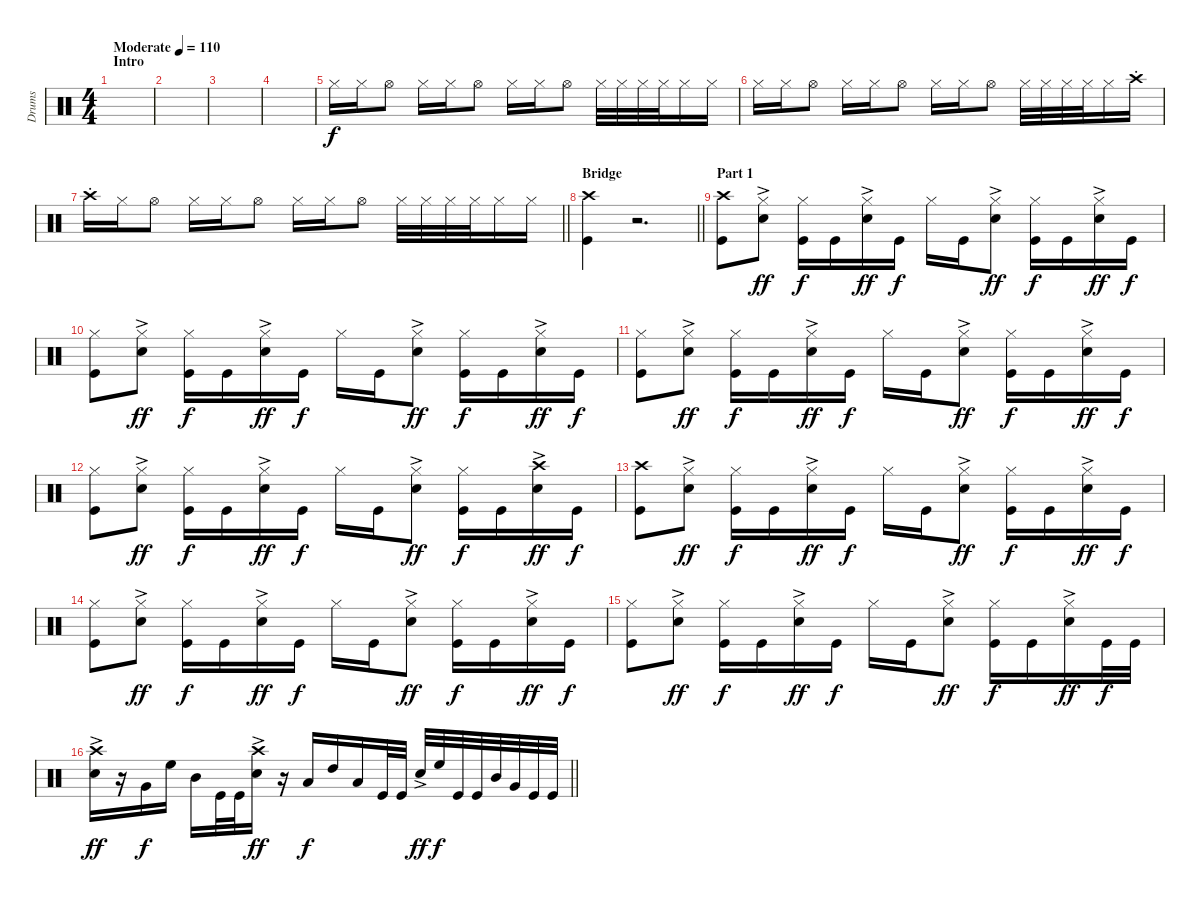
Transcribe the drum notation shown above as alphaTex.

\track ("Drums" "Drums") {instrument percussion}
\staff {score}
\articulation defaults
\ts (4 4)
\section ("" "Intro")
\tempo (110 "Moderate")
\clef neutral
\ks c
|
|
|
|
"Hi-Hat (closed)".16 "Hi-Hat (closed)".16 "Hi-Hat (open)".8 "Hi-Hat (closed)".16 "Hi-Hat (closed)".16 "Hi-Hat (open)".8 "Hi-Hat (closed)".16 "Hi-Hat (closed)".16 "Hi-Hat (open)".8 "Hi-Hat (closed)".32 "Hi-Hat (closed)".32 "Hi-Hat (closed)".32 "Hi-Hat (closed)".32 "Hi-Hat (closed)".16 "Hi-Hat (closed)".16 |
"Hi-Hat (closed)".16 "Hi-Hat (closed)".16 "Hi-Hat (open)".8 "Hi-Hat (closed)".16 "Hi-Hat (closed)".16 "Hi-Hat (open)".8 "Hi-Hat (closed)".16 "Hi-Hat (closed)".16 "Hi-Hat (open)".8 "Hi-Hat (closed)".32 "Hi-Hat (closed)".32 "Hi-Hat (closed)".32 "Hi-Hat (closed)".32 "Hi-Hat (closed)".16 "Crash high (hit)"{st}.16 |
\barLineRight lightlight "Crash high (hit)"{st}.16 "Hi-Hat (closed)".16 "Hi-Hat (open)".8 "Hi-Hat (closed)".16 "Hi-Hat (closed)".16 "Hi-Hat (open)".8 "Hi-Hat (closed)".16 "Hi-Hat (closed)".16 "Hi-Hat (open)".8 "Hi-Hat (closed)".32 "Hi-Hat (closed)".32 "Hi-Hat (closed)".32 "Hi-Hat (closed)".32 "Hi-Hat (closed)".16 "Hi-Hat (closed)".16
|
\section ("" "Bridge")
\barLineRight lightlight
("Crash high (hit)" "Kick (hit)").4 r.2{d} |
\section ("" "Part 1")
("Kick (hit)" "Crash high (hit)").8 ("Hi-Hat (closed)" "Electric Snare (hit)"{ac}).8{dy ff} ("Hi-Hat (closed)" "Kick (hit)").16{dy f} "Kick (hit)".16 ("Hi-Hat (closed)" "Electric Snare (hit)"{ac}).16{dy ff} "Kick (hit)".16{dy f} "Hi-Hat (closed)".16 "Kick (hit)".16 ("Electric Snare (hit)"{ac} "Hi-Hat (closed)").8{dy ff} ("Kick (hit)" "Hi-Hat (closed)").16{dy f} "Kick (hit)".16 ("Electric Snare (hit)"{ac} "Hi-Hat (closed)").16{dy ff} "Kick (hit)".16{dy f} |
("Kick (hit)" "Hi-Hat (closed)").8 ("Hi-Hat (closed)" "Electric Snare (hit)"{ac}).8{dy ff} ("Hi-Hat (closed)" "Kick (hit)").16{dy f} "Kick (hit)".16 ("Hi-Hat (closed)" "Electric Snare (hit)"{ac}).16{dy ff} "Kick (hit)".16{dy f} "Hi-Hat (closed)".16 "Kick (hit)".16 ("Electric Snare (hit)"{ac} "Hi-Hat (closed)").8{dy ff} ("Kick (hit)" "Hi-Hat (closed)").16{dy f} "Kick (hit)".16 ("Electric Snare (hit)"{ac} "Hi-Hat (closed)").16{dy ff} "Kick (hit)".16{dy f} |
("Kick (hit)" "Hi-Hat (closed)").8 ("Hi-Hat (closed)" "Electric Snare (hit)"{ac}).8{dy ff} ("Hi-Hat (closed)" "Kick (hit)").16{dy f} "Kick (hit)".16 ("Hi-Hat (closed)" "Electric Snare (hit)"{ac}).16{dy ff} "Kick (hit)".16{dy f} "Hi-Hat (closed)".16 "Kick (hit)".16 ("Electric Snare (hit)"{ac} "Hi-Hat (closed)").8{dy ff} ("Kick (hit)" "Hi-Hat (closed)").16{dy f} "Kick (hit)".16 ("Electric Snare (hit)"{ac} "Hi-Hat (closed)").16{dy ff} "Kick (hit)".16{dy f} |
("Kick (hit)" "Hi-Hat (closed)").8 ("Hi-Hat (closed)" "Electric Snare (hit)"{ac}).8{dy ff} ("Hi-Hat (closed)" "Kick (hit)").16{dy f} "Kick (hit)".16 ("Hi-Hat (closed)" "Electric Snare (hit)"{ac}).16{dy ff} "Kick (hit)".16{dy f} "Hi-Hat (closed)".16 "Kick (hit)".16 ("Electric Snare (hit)"{ac} "Hi-Hat (closed)").8{dy ff} ("Kick (hit)" "Hi-Hat (closed)").16{dy f} "Kick (hit)".16 ("Electric Snare (hit)"{ac} "Crash high (hit)").16{dy ff} "Kick (hit)".16{dy f} |
("Kick (hit)" "Crash high (hit)").8 ("Hi-Hat (closed)" "Electric Snare (hit)"{ac}).8{dy ff} ("Hi-Hat (closed)" "Kick (hit)").16{dy f} "Kick (hit)".16 ("Hi-Hat (closed)" "Electric Snare (hit)"{ac}).16{dy ff} "Kick (hit)".16{dy f} "Hi-Hat (closed)".16 "Kick (hit)".16 ("Electric Snare (hit)"{ac} "Hi-Hat (closed)").8{dy ff} ("Kick (hit)" "Hi-Hat (closed)").16{dy f} "Kick (hit)".16 ("Electric Snare (hit)"{ac} "Hi-Hat (closed)").16{dy ff} "Kick (hit)".16{dy f} |
("Kick (hit)" "Hi-Hat (closed)").8 ("Hi-Hat (closed)" "Electric Snare (hit)"{ac}).8{dy ff} ("Hi-Hat (closed)" "Kick (hit)").16{dy f} "Kick (hit)".16 ("Hi-Hat (closed)" "Electric Snare (hit)"{ac}).16{dy ff} "Kick (hit)".16{dy f} "Hi-Hat (closed)".16 "Kick (hit)".16 ("Electric Snare (hit)"{ac} "Hi-Hat (closed)").8{dy ff} ("Kick (hit)" "Hi-Hat (closed)").16{dy f} "Kick (hit)".16 ("Electric Snare (hit)"{ac} "Hi-Hat (closed)").16{dy ff} "Kick (hit)".16{dy f} |
("Kick (hit)" "Hi-Hat (closed)").8 ("Hi-Hat (closed)" "Electric Snare (hit)"{ac}).8{dy ff} ("Hi-Hat (closed)" "Kick (hit)").16{dy f} "Kick (hit)".16 ("Hi-Hat (closed)" "Electric Snare (hit)"{ac}).16{dy ff} "Kick (hit)".16{dy f} "Hi-Hat (closed)".16 "Kick (hit)".16 ("Electric Snare (hit)"{ac} "Hi-Hat (closed)").8{dy ff} ("Kick (hit)" "Hi-Hat (closed)").16{dy f} "Kick (hit)".16 ("Electric Snare (hit)"{ac} "Hi-Hat (closed)").16{dy ff} "Kick (hit)".32{dy f} "Kick (hit)".32 |
\barLineRight lightlight
("Electric Snare (hit)"{ac} "Crash high (hit)").16{dy ff} r.16 "Very Low Tom (hit)".16{dy f} "High Floor Tom (hit)".16 "Mid Tom (hit)".16 "Kick (hit)".32 "Kick (hit)".32 ("Electric Snare (hit)"{ac} "Crash high (hit)").16{dy ff} r.16 "Low Floor Tom (hit)".16{dy f} "High Tom (hit)".16 "Low Tom (hit)".16 "Kick (hit)".32 "Kick (hit)".32 "Electric Snare (hit)"{ac}.32{dy ff} "High Floor Tom (hit)".32{dy f} "Kick (hit)".32 "Kick (hit)".32 "Mid Tom (hit)".32 "Very Low Tom (hit)".32 "Kick (hit)".32 "Kick (hit)".32
